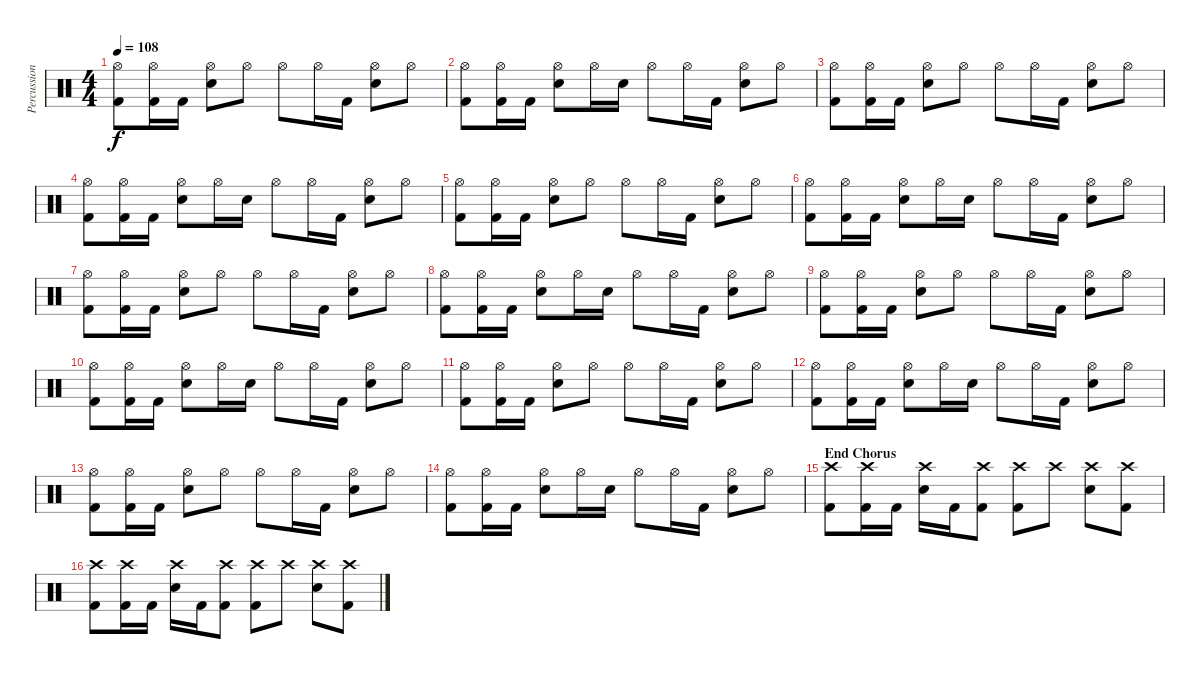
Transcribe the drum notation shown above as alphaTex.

\track ("Percussion" "Percussion") {instrument percussion}
\staff {score}
\articulation defaults
\ts (4 4)
\tempo 108
\clef neutral
\ks c
("Hi-Hat (open)" "Kick (hit) 2").8{dy f} ("Hi-Hat (open)" "Kick (hit) 2").16 "Kick (hit) 2".16 ("Hi-Hat (open)" "Snare (hit) 2").8 "Hi-Hat (open)".8 "Hi-Hat (open)".8 "Hi-Hat (open)".16 "Kick (hit) 2".16 ("Hi-Hat (open)" "Snare (hit) 2").8 "Hi-Hat (open)".8 |
("Hi-Hat (open)" "Kick (hit) 2").8 ("Hi-Hat (open)" "Kick (hit) 2").16 "Kick (hit) 2".16 ("Hi-Hat (open)" "Snare (hit) 2").8 "Hi-Hat (open)".16 "Snare (hit) 2".16 "Hi-Hat (open)".8 "Hi-Hat (open)".16 "Kick (hit) 2".16 ("Hi-Hat (open)" "Snare (hit) 2").8 "Hi-Hat (open)".8 |
("Hi-Hat (open)" "Kick (hit) 2").8 ("Hi-Hat (open)" "Kick (hit) 2").16 "Kick (hit) 2".16 ("Hi-Hat (open)" "Snare (hit) 2").8 "Hi-Hat (open)".8 "Hi-Hat (open)".8 "Hi-Hat (open)".16 "Kick (hit) 2".16 ("Hi-Hat (open)" "Snare (hit) 2").8 "Hi-Hat (open)".8 |
("Hi-Hat (open)" "Kick (hit) 2").8 ("Hi-Hat (open)" "Kick (hit) 2").16 "Kick (hit) 2".16 ("Hi-Hat (open)" "Snare (hit) 2").8 "Hi-Hat (open)".16 "Snare (hit) 2".16 "Hi-Hat (open)".8 "Hi-Hat (open)".16 "Kick (hit) 2".16 ("Hi-Hat (open)" "Snare (hit) 2").8 "Hi-Hat (open)".8 |
("Hi-Hat (open)" "Kick (hit) 2").8 ("Hi-Hat (open)" "Kick (hit) 2").16 "Kick (hit) 2".16 ("Hi-Hat (open)" "Snare (hit) 2").8 "Hi-Hat (open)".8 "Hi-Hat (open)".8 "Hi-Hat (open)".16 "Kick (hit) 2".16 ("Hi-Hat (open)" "Snare (hit) 2").8 "Hi-Hat (open)".8 |
("Hi-Hat (open)" "Kick (hit) 2").8 ("Hi-Hat (open)" "Kick (hit) 2").16 "Kick (hit) 2".16 ("Hi-Hat (open)" "Snare (hit) 2").8 "Hi-Hat (open)".16 "Snare (hit) 2".16 "Hi-Hat (open)".8 "Hi-Hat (open)".16 "Kick (hit) 2".16 ("Hi-Hat (open)" "Snare (hit) 2").8 "Hi-Hat (open)".8 |
("Hi-Hat (open)" "Kick (hit) 2").8 ("Hi-Hat (open)" "Kick (hit) 2").16 "Kick (hit) 2".16 ("Hi-Hat (open)" "Snare (hit) 2").8 "Hi-Hat (open)".8 "Hi-Hat (open)".8 "Hi-Hat (open)".16 "Kick (hit) 2".16 ("Hi-Hat (open)" "Snare (hit) 2").8 "Hi-Hat (open)".8 |
("Hi-Hat (open)" "Kick (hit) 2").8 ("Hi-Hat (open)" "Kick (hit) 2").16 "Kick (hit) 2".16 ("Hi-Hat (open)" "Snare (hit) 2").8 "Hi-Hat (open)".16 "Snare (hit) 2".16 "Hi-Hat (open)".8 "Hi-Hat (open)".16 "Kick (hit) 2".16 ("Hi-Hat (open)" "Snare (hit) 2").8 "Hi-Hat (open)".8 |
("Hi-Hat (open)" "Kick (hit) 2").8 ("Hi-Hat (open)" "Kick (hit) 2").16 "Kick (hit) 2".16 ("Hi-Hat (open)" "Snare (hit) 2").8 "Hi-Hat (open)".8 "Hi-Hat (open)".8 "Hi-Hat (open)".16 "Kick (hit) 2".16 ("Hi-Hat (open)" "Snare (hit) 2").8 "Hi-Hat (open)".8 |
("Hi-Hat (open)" "Kick (hit) 2").8 ("Hi-Hat (open)" "Kick (hit) 2").16 "Kick (hit) 2".16 ("Hi-Hat (open)" "Snare (hit) 2").8 "Hi-Hat (open)".16 "Snare (hit) 2".16 "Hi-Hat (open)".8 "Hi-Hat (open)".16 "Kick (hit) 2".16 ("Hi-Hat (open)" "Snare (hit) 2").8 "Hi-Hat (open)".8 |
("Hi-Hat (open)" "Kick (hit) 2").8 ("Hi-Hat (open)" "Kick (hit) 2").16 "Kick (hit) 2".16 ("Hi-Hat (open)" "Snare (hit) 2").8 "Hi-Hat (open)".8 "Hi-Hat (open)".8 "Hi-Hat (open)".16 "Kick (hit) 2".16 ("Hi-Hat (open)" "Snare (hit) 2").8 "Hi-Hat (open)".8 |
("Hi-Hat (open)" "Kick (hit) 2").8 ("Hi-Hat (open)" "Kick (hit) 2").16 "Kick (hit) 2".16 ("Hi-Hat (open)" "Snare (hit) 2").8 "Hi-Hat (open)".16 "Snare (hit) 2".16 "Hi-Hat (open)".8 "Hi-Hat (open)".16 "Kick (hit) 2".16 ("Hi-Hat (open)" "Snare (hit) 2").8 "Hi-Hat (open)".8 |
("Hi-Hat (open)" "Kick (hit) 2").8 ("Hi-Hat (open)" "Kick (hit) 2").16 "Kick (hit) 2".16 ("Hi-Hat (open)" "Snare (hit) 2").8 "Hi-Hat (open)".8 "Hi-Hat (open)".8 "Hi-Hat (open)".16 "Kick (hit) 2".16 ("Hi-Hat (open)" "Snare (hit) 2").8 "Hi-Hat (open)".8 |
("Hi-Hat (open)" "Kick (hit) 2").8 ("Hi-Hat (open)" "Kick (hit) 2").16 "Kick (hit) 2".16 ("Hi-Hat (open)" "Snare (hit) 2").8 "Hi-Hat (open)".16 "Snare (hit) 2".16 "Hi-Hat (open)".8 "Hi-Hat (open)".16 "Kick (hit) 2".16 ("Hi-Hat (open)" "Snare (hit) 2").8 "Hi-Hat (open)".8 |
\section ("" "End Chorus")
("Crash high (hit)" "Kick (hit) 2").8 ("Crash high (hit)" "Kick (hit) 2").16 "Kick (hit) 2".16 ("Crash high (hit)" "Snare (hit) 2").16 "Kick (hit) 2".16 ("Crash high (hit)" "Kick (hit) 2").8 ("Crash high (hit)" "Kick (hit) 2").8 "Crash high (hit)".8 ("Crash high (hit)" "Snare (hit) 2").8 ("Crash high (hit)" "Kick (hit) 2").8 |
("Crash high (hit)" "Kick (hit) 2").8 ("Crash high (hit)" "Kick (hit) 2").16 "Kick (hit) 2".16 ("Crash high (hit)" "Snare (hit) 2").16 "Kick (hit) 2".16 ("Crash high (hit)" "Kick (hit) 2").8 ("Crash high (hit)" "Kick (hit) 2").8 "Crash high (hit)".8 ("Crash high (hit)" "Snare (hit) 2").8 ("Crash high (hit)" "Kick (hit) 2").8
